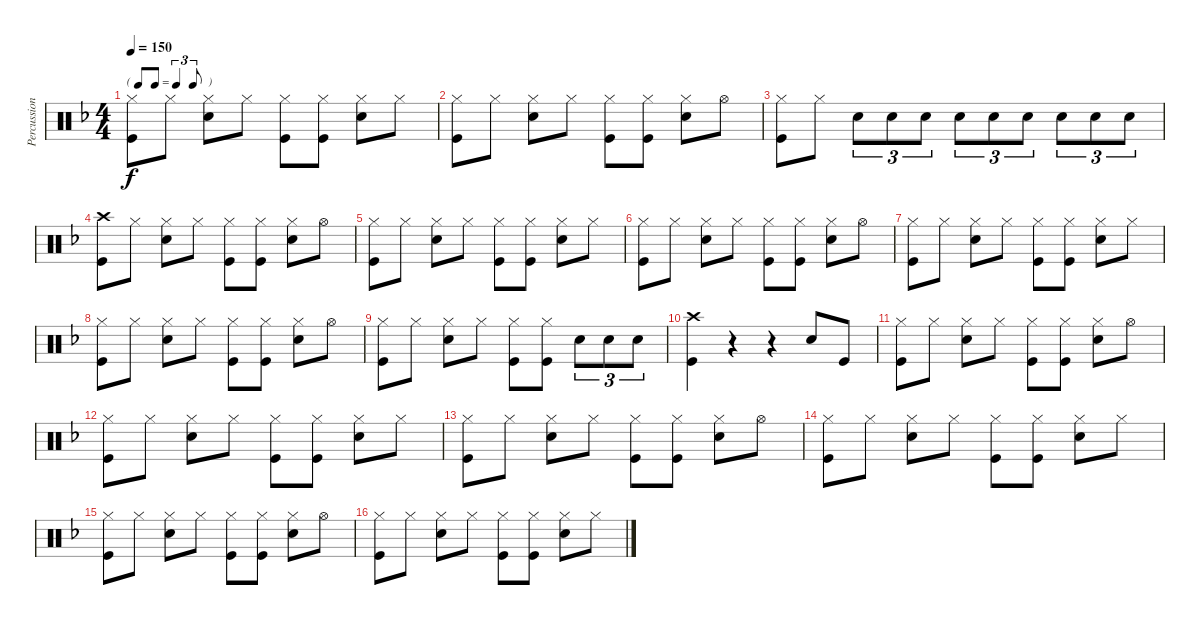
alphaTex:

\track ("Percussion" "Percussion") {instrument percussion}
\staff {score}
\articulation defaults
\ts (4 4)
\tf triplet8th
\tempo 150
\clef neutral
\ks f
("Hi-Hat (closed)" "Kick (hit)").8{dy f} "Hi-Hat (closed)".8 ("Hi-Hat (closed)" "Snare (hit) 2").8 "Hi-Hat (closed)".8 ("Hi-Hat (closed)" "Kick (hit)").8 ("Hi-Hat (closed)" "Kick (hit)").8 ("Hi-Hat (closed)" "Snare (hit) 2").8 "Hi-Hat (closed)".8 |
("Hi-Hat (closed)" "Kick (hit)").8 "Hi-Hat (closed)".8 ("Hi-Hat (closed)" "Snare (hit) 2").8 "Hi-Hat (closed)".8 ("Hi-Hat (closed)" "Kick (hit)").8 ("Hi-Hat (closed)" "Kick (hit)").8 ("Hi-Hat (closed)" "Snare (hit) 2").8 "Hi-Hat (open)".8 |
("Hi-Hat (closed)" "Kick (hit)").8 "Hi-Hat (closed)".8 "Snare (hit) 2".8{tu (3 2)} "Snare (hit) 2".8{tu (3 2)} "Snare (hit) 2".8{tu (3 2)} "Snare (hit) 2".8{tu (3 2)} "Snare (hit) 2".8{tu (3 2)} "Snare (hit) 2".8{tu (3 2)} "Snare (hit) 2".8{tu (3 2)} "Snare (hit) 2".8{tu (3 2)} "Snare (hit) 2".8{tu (3 2)} |
("Crash high (hit)" "Kick (hit)").8 "Hi-Hat (closed)".8 ("Hi-Hat (closed)" "Snare (hit) 2").8 "Hi-Hat (closed)".8 ("Hi-Hat (closed)" "Kick (hit)").8 ("Hi-Hat (closed)" "Kick (hit)").8 ("Hi-Hat (closed)" "Snare (hit) 2").8 "Hi-Hat (open)".8 |
("Hi-Hat (closed)" "Kick (hit)").8 "Hi-Hat (closed)".8 ("Hi-Hat (closed)" "Snare (hit) 2").8 "Hi-Hat (closed)".8 ("Hi-Hat (closed)" "Kick (hit)").8 ("Hi-Hat (closed)" "Kick (hit)").8 ("Hi-Hat (closed)" "Snare (hit) 2").8 "Hi-Hat (closed)".8 |
("Hi-Hat (closed)" "Kick (hit)").8 "Hi-Hat (closed)".8 ("Hi-Hat (closed)" "Snare (hit) 2").8 "Hi-Hat (closed)".8 ("Hi-Hat (closed)" "Kick (hit)").8 ("Hi-Hat (closed)" "Kick (hit)").8 ("Hi-Hat (closed)" "Snare (hit) 2").8 "Hi-Hat (open)".8 |
("Hi-Hat (closed)" "Kick (hit)").8 "Hi-Hat (closed)".8 ("Hi-Hat (closed)" "Snare (hit) 2").8 "Hi-Hat (closed)".8 ("Hi-Hat (closed)" "Kick (hit)").8 ("Hi-Hat (closed)" "Kick (hit)").8 ("Hi-Hat (closed)" "Snare (hit) 2").8 "Hi-Hat (closed)".8 |
("Hi-Hat (closed)" "Kick (hit)").8 "Hi-Hat (closed)".8 ("Hi-Hat (closed)" "Snare (hit) 2").8 "Hi-Hat (closed)".8 ("Hi-Hat (closed)" "Kick (hit)").8 ("Hi-Hat (closed)" "Kick (hit)").8 ("Hi-Hat (closed)" "Snare (hit) 2").8 "Hi-Hat (open)".8 |
("Hi-Hat (closed)" "Kick (hit)").8 "Hi-Hat (closed)".8 ("Hi-Hat (closed)" "Snare (hit) 2").8 "Hi-Hat (closed)".8 ("Hi-Hat (closed)" "Kick (hit)").8 ("Hi-Hat (closed)" "Kick (hit)").8 "Snare (hit) 2".8{tu (3 2)} "Snare (hit) 2".8{tu (3 2)} "Snare (hit) 2".8{tu (3 2)} |
("Crash high (hit)" "Kick (hit)").4 r.4 r.4 "Snare (hit) 2".8 "Kick (hit)".8 |
("Hi-Hat (closed)" "Kick (hit)").8 "Hi-Hat (closed)".8 ("Hi-Hat (closed)" "Snare (hit) 2").8 "Hi-Hat (closed)".8 ("Hi-Hat (closed)" "Kick (hit)").8 ("Hi-Hat (closed)" "Kick (hit)").8 ("Hi-Hat (closed)" "Snare (hit) 2").8 "Hi-Hat (open)".8 |
("Hi-Hat (closed)" "Kick (hit)").8 "Hi-Hat (closed)".8 ("Hi-Hat (closed)" "Snare (hit) 2").8 "Hi-Hat (closed)".8 ("Hi-Hat (closed)" "Kick (hit)").8 ("Hi-Hat (closed)" "Kick (hit)").8 ("Hi-Hat (closed)" "Snare (hit) 2").8 "Hi-Hat (closed)".8 |
("Hi-Hat (closed)" "Kick (hit)").8 "Hi-Hat (closed)".8 ("Hi-Hat (closed)" "Snare (hit) 2").8 "Hi-Hat (closed)".8 ("Hi-Hat (closed)" "Kick (hit)").8 ("Hi-Hat (closed)" "Kick (hit)").8 ("Hi-Hat (closed)" "Snare (hit) 2").8 "Hi-Hat (open)".8 |
("Hi-Hat (closed)" "Kick (hit)").8 "Hi-Hat (closed)".8 ("Hi-Hat (closed)" "Snare (hit) 2").8 "Hi-Hat (closed)".8 ("Hi-Hat (closed)" "Kick (hit)").8 ("Hi-Hat (closed)" "Kick (hit)").8 ("Hi-Hat (closed)" "Snare (hit) 2").8 "Hi-Hat (closed)".8 |
("Hi-Hat (closed)" "Kick (hit)").8 "Hi-Hat (closed)".8 ("Hi-Hat (closed)" "Snare (hit) 2").8 "Hi-Hat (closed)".8 ("Hi-Hat (closed)" "Kick (hit)").8 ("Hi-Hat (closed)" "Kick (hit)").8 ("Hi-Hat (closed)" "Snare (hit) 2").8 "Hi-Hat (open)".8 |
("Hi-Hat (closed)" "Kick (hit)").8 "Hi-Hat (closed)".8 ("Hi-Hat (closed)" "Snare (hit) 2").8 "Hi-Hat (closed)".8 ("Hi-Hat (closed)" "Kick (hit)").8 ("Hi-Hat (closed)" "Kick (hit)").8 ("Hi-Hat (closed)" "Snare (hit) 2").8 "Hi-Hat (closed)".8
